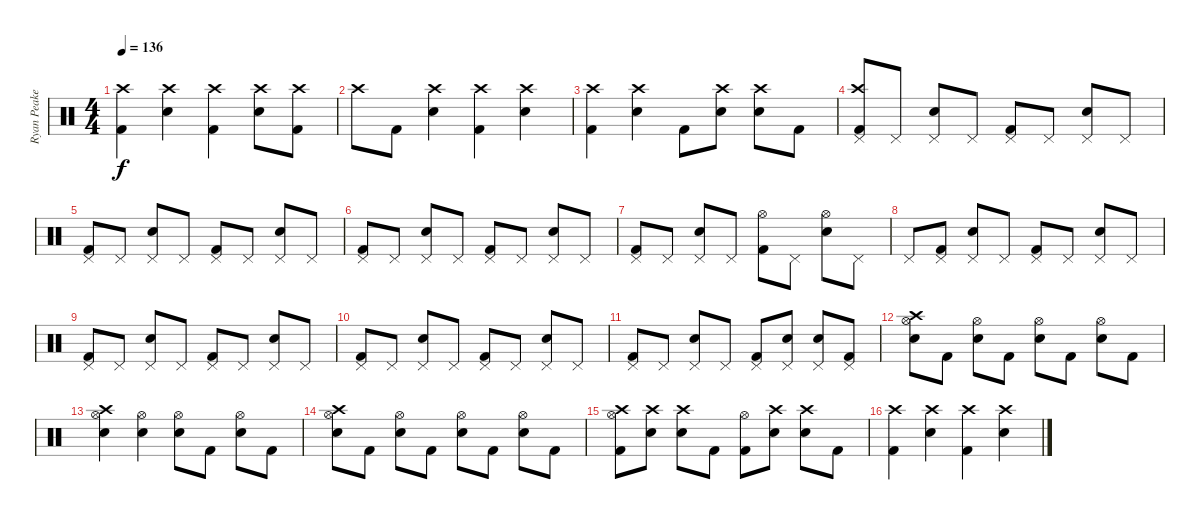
\track ("Ryan Peake" "Ryan Peake") {instrument percussion}
\staff {score}
\articulation defaults
\ts (4 4)
\tempo 136
\clef neutral
\ks c
("Kick (hit) 2" "Crash high (hit)").4{dy f} ("Snare (hit) 2" "Crash high (hit)").4 ("Kick (hit) 2" "Crash high (hit)").4 ("Snare (hit) 2" "Crash high (hit)").8 ("Kick (hit) 2" "Crash high (hit)").8 |
"Crash high (hit)".8 "Kick (hit) 2".8 ("Snare (hit) 2" "Crash high (hit)").4 ("Kick (hit) 2" "Crash high (hit)").4 ("Snare (hit) 2" "Crash high (hit)").4 |
("Kick (hit) 2" "Crash high (hit)").4 ("Snare (hit) 2" "Crash high (hit)").4 "Kick (hit) 2".8 ("Snare (hit) 2" "Crash high (hit)").8 ("Snare (hit) 2" "Crash high (hit)").8 "Kick (hit) 2".8 |
("Kick (hit) 2" "Pedal Hi-Hat (hit)" "Crash high (hit)").8 "Pedal Hi-Hat (hit)".8 ("Snare (hit) 2" "Pedal Hi-Hat (hit)").8 "Pedal Hi-Hat (hit)".8 ("Kick (hit) 2" "Pedal Hi-Hat (hit)").8 "Pedal Hi-Hat (hit)".8 ("Snare (hit) 2" "Pedal Hi-Hat (hit)").8 "Pedal Hi-Hat (hit)".8 |
("Kick (hit) 2" "Pedal Hi-Hat (hit)").8 "Pedal Hi-Hat (hit)".8 ("Snare (hit) 2" "Pedal Hi-Hat (hit)").8 "Pedal Hi-Hat (hit)".8 ("Kick (hit) 2" "Pedal Hi-Hat (hit)").8 "Pedal Hi-Hat (hit)".8 ("Snare (hit) 2" "Pedal Hi-Hat (hit)").8 "Pedal Hi-Hat (hit)".8 |
("Kick (hit) 2" "Pedal Hi-Hat (hit)").8 "Pedal Hi-Hat (hit)".8 ("Snare (hit) 2" "Pedal Hi-Hat (hit)").8 "Pedal Hi-Hat (hit)".8 ("Kick (hit) 2" "Pedal Hi-Hat (hit)").8 "Pedal Hi-Hat (hit)".8 ("Snare (hit) 2" "Pedal Hi-Hat (hit)").8 "Pedal Hi-Hat (hit)".8 |
("Kick (hit) 2" "Pedal Hi-Hat (hit)").8 "Pedal Hi-Hat (hit)".8 ("Snare (hit) 2" "Pedal Hi-Hat (hit)").8 "Pedal Hi-Hat (hit)".8 ("Kick (hit) 2" "Hi-Hat (open)").8 "Pedal Hi-Hat (hit)".8 ("Snare (hit) 2" "Hi-Hat (open)").8 "Pedal Hi-Hat (hit)".8 |
"Pedal Hi-Hat (hit)".8 ("Kick (hit) 2" "Pedal Hi-Hat (hit)").8 ("Snare (hit) 2" "Pedal Hi-Hat (hit)").8 "Pedal Hi-Hat (hit)".8 ("Kick (hit) 2" "Pedal Hi-Hat (hit)").8 "Pedal Hi-Hat (hit)".8 ("Snare (hit) 2" "Pedal Hi-Hat (hit)").8 "Pedal Hi-Hat (hit)".8 |
("Kick (hit) 2" "Pedal Hi-Hat (hit)").8 "Pedal Hi-Hat (hit)".8 ("Snare (hit) 2" "Pedal Hi-Hat (hit)").8 "Pedal Hi-Hat (hit)".8 ("Kick (hit) 2" "Pedal Hi-Hat (hit)").8 "Pedal Hi-Hat (hit)".8 ("Snare (hit) 2" "Pedal Hi-Hat (hit)").8 "Pedal Hi-Hat (hit)".8 |
("Kick (hit) 2" "Pedal Hi-Hat (hit)").8 "Pedal Hi-Hat (hit)".8 ("Snare (hit) 2" "Pedal Hi-Hat (hit)").8 "Pedal Hi-Hat (hit)".8 ("Kick (hit) 2" "Pedal Hi-Hat (hit)").8 "Pedal Hi-Hat (hit)".8 ("Snare (hit) 2" "Pedal Hi-Hat (hit)").8 "Pedal Hi-Hat (hit)".8 |
("Kick (hit) 2" "Pedal Hi-Hat (hit)").8 "Pedal Hi-Hat (hit)".8 ("Snare (hit) 2" "Pedal Hi-Hat (hit)").8 "Pedal Hi-Hat (hit)".8 ("Kick (hit) 2" "Pedal Hi-Hat (hit)").8 ("Snare (hit) 2" "Pedal Hi-Hat (hit)").8 ("Snare (hit) 2" "Pedal Hi-Hat (hit)").8 ("Kick (hit) 2" "Pedal Hi-Hat (hit)").8 |
("Snare (hit) 2" "Hi-Hat (open)" "Crash high (hit)").8 "Kick (hit) 2".8 ("Snare (hit) 2" "Hi-Hat (open)").8 "Kick (hit) 2".8 ("Snare (hit) 2" "Hi-Hat (open)").8 "Kick (hit) 2".8 ("Snare (hit) 2" "Hi-Hat (open)").8 "Kick (hit) 2".8 |
("Snare (hit) 2" "Hi-Hat (open)" "Crash high (hit)").4 ("Snare (hit) 2" "Hi-Hat (open)").4 ("Snare (hit) 2" "Hi-Hat (open)").8 "Kick (hit) 2".8 ("Snare (hit) 2" "Hi-Hat (open)").8 "Kick (hit) 2".8 |
("Snare (hit) 2" "Hi-Hat (open)" "Crash high (hit)").8 "Kick (hit) 2".8 ("Snare (hit) 2" "Hi-Hat (open)").8 "Kick (hit) 2".8 ("Snare (hit) 2" "Hi-Hat (open)").8 "Kick (hit) 2".8 ("Snare (hit) 2" "Hi-Hat (open)").8 "Kick (hit) 2".8 |
("Kick (hit) 2" "Hi-Hat (open)" "Crash high (hit)").8 ("Snare (hit) 2" "Crash high (hit)").8 ("Snare (hit) 2" "Crash high (hit)").8 "Kick (hit) 2".8 ("Kick (hit) 2" "Hi-Hat (open)").8 ("Snare (hit) 2" "Crash high (hit)").8 ("Snare (hit) 2" "Crash high (hit)").8 "Kick (hit) 2".8 |
("Kick (hit) 2" "Crash high (hit)").4 ("Snare (hit) 2" "Crash high (hit)").4 ("Kick (hit) 2" "Crash high (hit)").4 ("Snare (hit) 2" "Crash high (hit)").4
